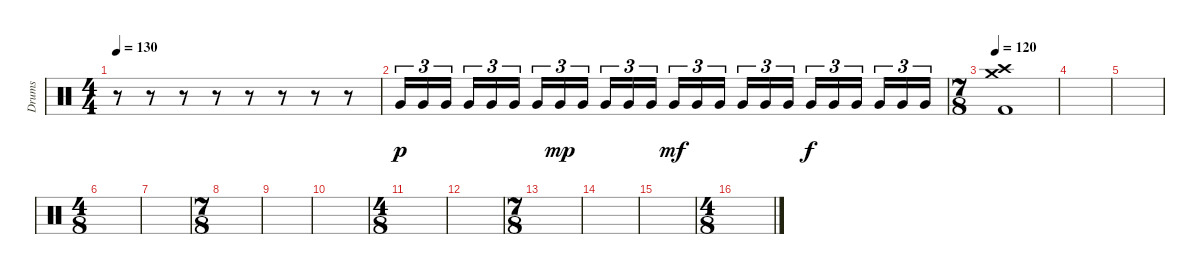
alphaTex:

\track ("Drums" "Drums") {instrument percussion}
\staff {score}
\articulation defaults
\ts (4 4)
\tempo 130
\clef neutral
\ks c
r.8{dy f} r.8 r.8 r.8 r.8 r.8 r.8 r.8 |
"Very Low Tom (hit)".16{tu (3 2) dy p} "Very Low Tom (hit)".16{tu (3 2)} "Very Low Tom (hit)".16{tu (3 2)} "Very Low Tom (hit)".16{tu (3 2)} "Very Low Tom (hit)".16{tu (3 2)} "Very Low Tom (hit)".16{tu (3 2)} "Very Low Tom (hit)".16{tu (3 2)} "Very Low Tom (hit)".16{tu (3 2) dy mp} "Very Low Tom (hit)".16{tu (3 2)} "Very Low Tom (hit)".16{tu (3 2)} "Very Low Tom (hit)".16{tu (3 2)} "Very Low Tom (hit)".16{tu (3 2)} "Very Low Tom (hit)".16{tu (3 2) dy mf} "Very Low Tom (hit)".16{tu (3 2)} "Very Low Tom (hit)".16{tu (3 2)} "Very Low Tom (hit)".16{tu (3 2)} "Very Low Tom (hit)".16{tu (3 2)} "Very Low Tom (hit)".16{tu (3 2)} "Very Low Tom (hit)".16{tu (3 2) dy f} "Very Low Tom (hit)".16{tu (3 2)} "Very Low Tom (hit)".16{tu (3 2)} "Very Low Tom (hit)".16{tu (3 2)} "Very Low Tom (hit)".16{tu (3 2)} "Very Low Tom (hit)".16{tu (3 2)} |
\ts (7 8)
\tempo 120
("Crash high (hit)" "Crash medium (hit)" "Kick (hit) 2").1 |
|
|
\ts (4 8)
|
|
\ts (7 8)
|
|
|
\ts (4 8)
|
|
\ts (7 8)
|
|
|
\ts (4 8)
